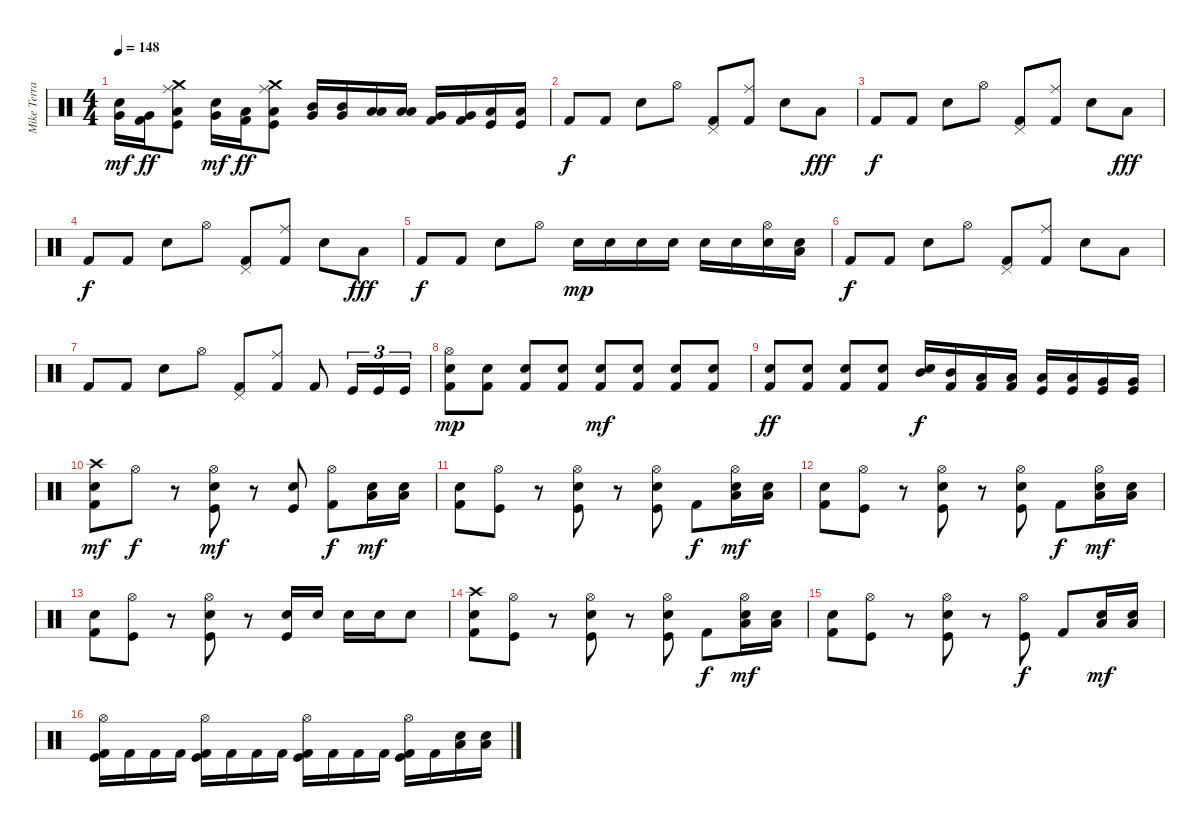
\track ("Mike Terrana" "Mike Terra") {instrument percussion}
\staff {score}
\articulation defaults
\ts (4 4)
\tempo 148
\clef neutral
\ks c
("Very Low Tom (hit)" "Snare (hit) 2").16{dy mf} ("Very Low Tom (hit)" "Kick (hit) 2").16{dy ff} ("Crash medium (hit)" "Ride (middle)" "Low Floor Tom (hit)" "Kick (hit)").8 ("Very Low Tom (hit)" "Snare (hit) 2").16{dy mf} ("Low Floor Tom (hit)" "Kick (hit) 2").16{dy ff} ("Crash medium (hit)" "Ride (middle)" "Low Floor Tom (hit)" "Kick (hit)").8 ("Mid Tom (hit)" "Very Low Tom (hit)").16 ("Mid Tom (hit)" "Very Low Tom (hit)").16 ("Low Tom (hit)" "Low Floor Tom (hit)").16 ("Low Tom (hit)" "Low Floor Tom (hit)").16 ("Very Low Tom (hit)" "Kick (hit) 2").16 ("Very Low Tom (hit)" "Kick (hit) 2").16 ("Low Floor Tom (hit)" "Kick (hit)").16 ("Low Floor Tom (hit)" "Kick (hit)").16 |
"Kick (hit) 2".8{dy f} "Kick (hit) 2".8 "Snare (hit) 2".8 "Hi-Hat (open)".8 ("Pedal Hi-Hat (hit)" "Kick (hit) 2").8 ("Ride (middle)" "Kick (hit) 2").8 "Snare (hit) 2".8 "Low Floor Tom (hit)".8{dy fff} |
"Kick (hit) 2".8{dy f} "Kick (hit) 2".8 "Snare (hit) 2".8 "Hi-Hat (open)".8 ("Pedal Hi-Hat (hit)" "Kick (hit) 2").8 ("Ride (middle)" "Kick (hit) 2").8 "Snare (hit) 2".8 "Low Floor Tom (hit)".8{dy fff} |
"Kick (hit) 2".8{dy f} "Kick (hit) 2".8 "Snare (hit) 2".8 "Hi-Hat (open)".8 ("Pedal Hi-Hat (hit)" "Kick (hit) 2").8 ("Ride (middle)" "Kick (hit) 2").8 "Snare (hit) 2".8 "Low Floor Tom (hit)".8{dy fff} |
"Kick (hit) 2".8{dy f} "Kick (hit) 2".8 "Snare (hit) 2".8 "Hi-Hat (open)".8 "Snare (hit) 2".16{dy mp} "Snare (hit) 2".16 "Snare (hit) 2".16 "Snare (hit) 2".16 "Snare (hit) 2".16 "Snare (hit) 2".16 ("Hi-Hat (open)" "Snare (hit) 2").16 ("Low Floor Tom (hit)" "Snare (hit) 2").16 |
"Kick (hit) 2".8{dy f} "Kick (hit) 2".8 "Snare (hit) 2".8 "Hi-Hat (open)".8 ("Pedal Hi-Hat (hit)" "Kick (hit) 2").8 ("Ride (middle)" "Kick (hit) 2").8 "Snare (hit) 2".8 "Low Floor Tom (hit)".8 |
"Kick (hit) 2".8 "Kick (hit) 2".8 "Snare (hit) 2".8 "Hi-Hat (open)".8 ("Pedal Hi-Hat (hit)" "Kick (hit) 2").8 ("Ride (middle)" "Kick (hit) 2").8 "Kick (hit) 2".8 "Kick (hit)".16{tu (3 2)} "Kick (hit)".16{tu (3 2)} "Kick (hit)".16{tu (3 2)} |
("Hi-Hat (open)" "Kick (hit) 2" "Snare (hit) 2").8{dy mp} ("Kick (hit) 2" "Snare (hit) 2").8 ("Kick (hit) 2" "Snare (hit) 2").8 ("Kick (hit) 2" "Snare (hit) 2").8 ("Kick (hit) 2" "Snare (hit) 2").8{dy mf} ("Kick (hit) 2" "Snare (hit) 2").8 ("Kick (hit) 2" "Snare (hit) 2").8 ("Kick (hit) 2" "Snare (hit) 2").8 |
("Kick (hit) 2" "Snare (hit) 2").8{dy ff} ("Kick (hit) 2" "Snare (hit) 2").8 ("Kick (hit) 2" "Snare (hit) 2").8 ("Kick (hit) 2" "Snare (hit) 2").8 ("Mid Tom (hit)" "Snare (hit) 2").16{dy f} ("Mid Tom (hit)" "Kick (hit) 2").16 ("Low Tom (hit)" "Kick (hit) 2").16 ("Low Tom (hit)" "Kick (hit) 2").16 ("Low Tom (hit)" "Kick (hit)").16 ("Low Tom (hit)" "Kick (hit)").16 ("Very Low Tom (hit)" "Kick (hit)").16 ("Very Low Tom (hit)" "Kick (hit)").16 |
("Crash high (hit)" "Kick (hit) 2" "Snare (hit) 2").8{dy mf} "Hi-Hat (open)".8{dy f} r.8 ("Hi-Hat (open)" "Kick (hit)" "Snare (hit) 2").8{dy mf} r.8 ("Kick (hit)" "Snare (hit) 2").8 ("Hi-Hat (open)" "Kick (hit) 2").8{dy f} ("Low Floor Tom (hit)" "Snare (hit) 2").16{dy mf} ("Low Floor Tom (hit)" "Snare (hit) 2").16 |
("Kick (hit) 2" "Snare (hit) 2").8 ("Hi-Hat (open)" "Kick (hit)").8 r.8 ("Hi-Hat (open)" "Kick (hit)" "Snare (hit) 2").8 r.8 ("Hi-Hat (open)" "Kick (hit)" "Snare (hit) 2").8 "Kick (hit) 2".8{dy f} ("Hi-Hat (open)" "Low Floor Tom (hit)" "Snare (hit) 2").16{dy mf} ("Low Floor Tom (hit)" "Snare (hit) 2").16 |
("Kick (hit) 2" "Snare (hit) 2").8 ("Hi-Hat (open)" "Kick (hit)").8 r.8 ("Hi-Hat (open)" "Kick (hit)" "Snare (hit) 2").8 r.8 ("Hi-Hat (open)" "Kick (hit)" "Snare (hit) 2").8 "Kick (hit) 2".8{dy f} ("Hi-Hat (open)" "Low Floor Tom (hit)" "Snare (hit) 2").16{dy mf} ("Low Floor Tom (hit)" "Snare (hit) 2").16 |
("Kick (hit) 2" "Snare (hit) 2").8 ("Hi-Hat (open)" "Kick (hit)").8 r.8 ("Hi-Hat (open)" "Kick (hit)" "Snare (hit) 2").8 r.8 ("Kick (hit)" "Snare (hit) 2").16 "Snare (hit) 2".16 "Snare (hit) 2".16 "Snare (hit) 2".16 "Snare (hit) 2".8 |
("Crash high (hit)" "Kick (hit) 2" "Snare (hit) 2").8 ("Hi-Hat (open)" "Kick (hit)").8 r.8 ("Hi-Hat (open)" "Kick (hit)" "Snare (hit) 2").8 r.8 ("Hi-Hat (open)" "Kick (hit)" "Snare (hit) 2").8 "Kick (hit) 2".8{dy f} ("Hi-Hat (open)" "Low Floor Tom (hit)" "Snare (hit) 2").16{dy mf} ("Low Floor Tom (hit)" "Snare (hit) 2").16 |
("Kick (hit) 2" "Snare (hit) 2").8 ("Hi-Hat (open)" "Kick (hit)").8 r.8 ("Hi-Hat (open)" "Kick (hit)" "Snare (hit) 2").8 r.8 ("Hi-Hat (open)" "Kick (hit)").8{dy f} "Kick (hit) 2".8 ("Low Floor Tom (hit)" "Snare (hit) 2").16{dy mf} ("Low Floor Tom (hit)" "Snare (hit) 2").16 |
("Hi-Hat (open)" "Kick (hit)" "Kick (hit) 2").16 "Kick (hit) 2".16 "Kick (hit) 2".16 "Kick (hit) 2".16 ("Hi-Hat (open)" "Kick (hit)" "Kick (hit) 2").16 "Kick (hit) 2".16 "Kick (hit) 2".16 "Kick (hit) 2".16 ("Hi-Hat (open)" "Kick (hit)" "Kick (hit) 2").16 "Kick (hit) 2".16 "Kick (hit) 2".16 "Kick (hit) 2".16 ("Hi-Hat (open)" "Kick (hit)" "Kick (hit) 2").16 "Kick (hit) 2".16 ("Low Floor Tom (hit)" "Snare (hit) 2").16 ("Low Floor Tom (hit)" "Snare (hit) 2").16
